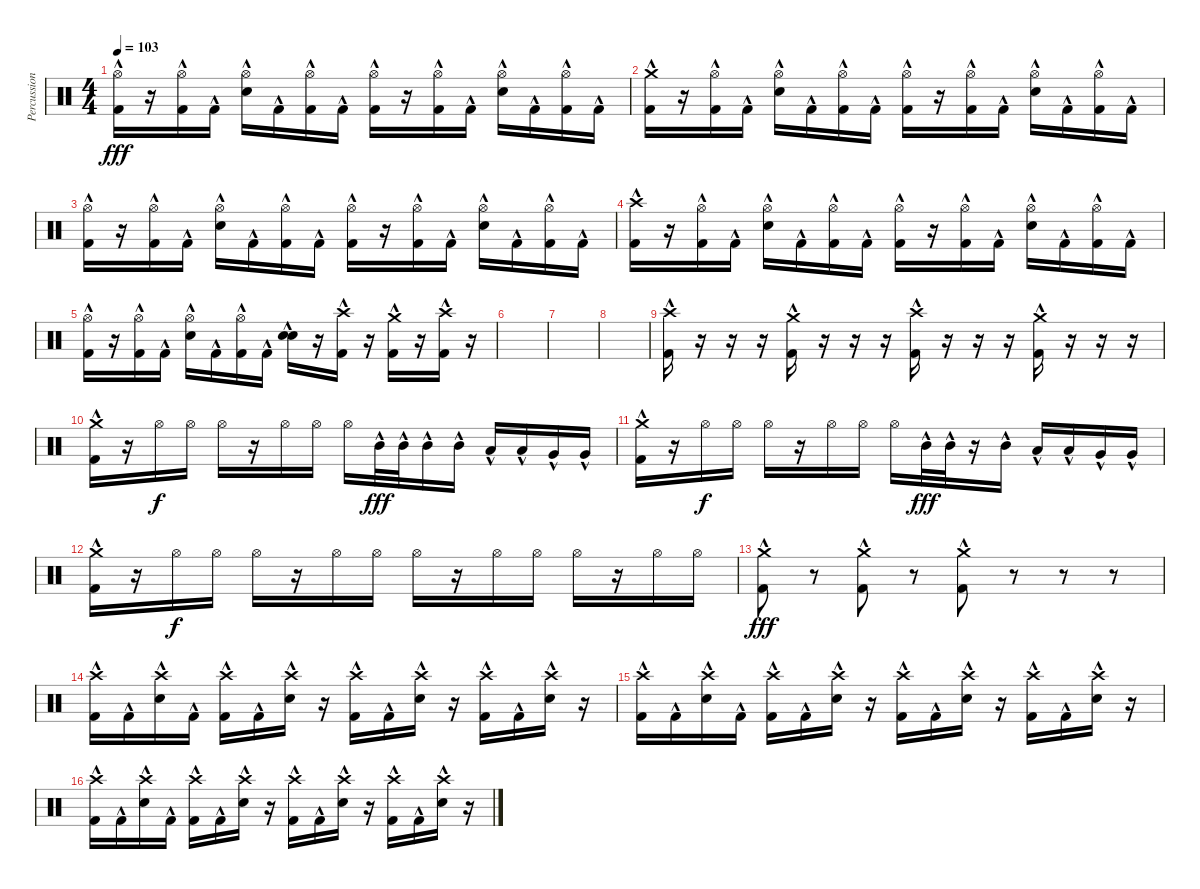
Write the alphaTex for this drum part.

\track ("Percussion" "Percussion") {instrument percussion}
\staff {score}
\articulation defaults
\ts (4 4)
\tempo 103
\clef neutral
\ks c
("Kick (hit) 2"{hac} "Hi-Hat (open)").16{dy fff} r.16 ("Kick (hit) 2"{hac} "Hi-Hat (open)").16 "Kick (hit) 2"{hac}.16 ("Electric Snare (hit)"{hac} "Hi-Hat (open)").16 "Kick (hit) 2"{hac}.16 ("Kick (hit) 2"{hac} "Hi-Hat (open)").16 "Kick (hit) 2"{hac}.16 ("Kick (hit) 2"{hac} "Hi-Hat (open)").16 r.16 ("Kick (hit) 2"{hac} "Hi-Hat (open)").16 "Kick (hit) 2"{hac}.16 ("Electric Snare (hit)"{hac} "Hi-Hat (open)").16 "Kick (hit) 2"{hac}.16 ("Kick (hit) 2"{hac} "Hi-Hat (open)").16 "Kick (hit) 2"{hac}.16 |
("Kick (hit) 2"{hac} "Crash medium (hit)").16 r.16 ("Kick (hit) 2"{hac} "Hi-Hat (open)").16 "Kick (hit) 2"{hac}.16 ("Electric Snare (hit)"{hac} "Hi-Hat (open)").16 "Kick (hit) 2"{hac}.16 ("Kick (hit) 2"{hac} "Hi-Hat (open)").16 "Kick (hit) 2"{hac}.16 ("Kick (hit) 2"{hac} "Hi-Hat (open)").16 r.16 ("Kick (hit) 2"{hac} "Hi-Hat (open)").16 "Kick (hit) 2"{hac}.16 ("Electric Snare (hit)"{hac} "Hi-Hat (open)").16 "Kick (hit) 2"{hac}.16 ("Kick (hit) 2"{hac} "Hi-Hat (open)").16 "Kick (hit) 2"{hac}.16 |
("Kick (hit) 2"{hac} "Hi-Hat (open)").16 r.16 ("Kick (hit) 2"{hac} "Hi-Hat (open)").16 "Kick (hit) 2"{hac}.16 ("Electric Snare (hit)"{hac} "Hi-Hat (open)").16 "Kick (hit) 2"{hac}.16 ("Kick (hit) 2"{hac} "Hi-Hat (open)").16 "Kick (hit) 2"{hac}.16 ("Kick (hit) 2"{hac} "Hi-Hat (open)").16 r.16 ("Kick (hit) 2"{hac} "Hi-Hat (open)").16 "Kick (hit) 2"{hac}.16 ("Electric Snare (hit)"{hac} "Hi-Hat (open)").16 "Kick (hit) 2"{hac}.16 ("Kick (hit) 2"{hac} "Hi-Hat (open)").16 "Kick (hit) 2"{hac}.16 |
("Kick (hit) 2"{hac} "Crash high (hit)").16 r.16 ("Kick (hit) 2"{hac} "Hi-Hat (open)").16 "Kick (hit) 2"{hac}.16 ("Electric Snare (hit)"{hac} "Hi-Hat (open)").16 "Kick (hit) 2"{hac}.16 ("Kick (hit) 2"{hac} "Hi-Hat (open)").16 "Kick (hit) 2"{hac}.16 ("Kick (hit) 2"{hac} "Hi-Hat (open)").16 r.16 ("Kick (hit) 2"{hac} "Hi-Hat (open)").16 "Kick (hit) 2"{hac}.16 ("Electric Snare (hit)"{hac} "Hi-Hat (open)").16 "Kick (hit) 2"{hac}.16 ("Kick (hit) 2"{hac} "Hi-Hat (open)").16 "Kick (hit) 2"{hac}.16 |
("Kick (hit) 2"{hac} "Hi-Hat (open)").16 r.16 ("Kick (hit) 2"{hac} "Hi-Hat (open)").16 "Kick (hit) 2"{hac}.16 ("Electric Snare (hit)"{hac} "Hi-Hat (open)").16 "Kick (hit) 2"{hac}.16 ("Kick (hit) 2"{hac} "Hi-Hat (open)").16 "Kick (hit) 2"{hac}.16 ("Electric Snare (hit)"{hac} "Electric Snare (hit)"{hac}).16{bd 240} r.16 ("Kick (hit) 2"{hac} "Crash high (hit)").16 r.16 ("Kick (hit) 2"{hac} "Crash medium (hit)").16 r.16 ("Kick (hit) 2"{hac} "Crash high (hit)").16 r.16 |
|
|
|
("Kick (hit) 2"{hac} "Crash high (hit)").16 r.16 r.16 r.16 ("Kick (hit) 2"{hac} "Crash medium (hit)").16 r.16 r.16 r.16 ("Kick (hit) 2"{hac} "Crash high (hit)").16 r.16 r.16 r.16 ("Kick (hit) 2"{hac} "Crash medium (hit)").16 r.16 r.16 r.16 |
("Kick (hit) 2"{hac} "Crash medium (hit)").16 r.16 "Hi-Hat (open)".16{dy f} "Hi-Hat (open)".16 "Hi-Hat (open)".16 r.16 "Hi-Hat (open)".16 "Hi-Hat (open)".16 "Hi-Hat (open)".16 "Mid Tom (hit)"{hac}.32{dy fff} "Mid Tom (hit)"{hac}.32 "Mid Tom (hit)"{hac}.16 "Mid Tom (hit)"{hac}.16 "Low Tom (hit)"{hac}.16 "Low Tom (hit)"{hac}.16 "Very Low Tom (hit)"{hac}.16 "Very Low Tom (hit)"{hac}.16 |
("Kick (hit) 2"{hac} "Crash medium (hit)").16 r.16 "Hi-Hat (open)".16{dy f} "Hi-Hat (open)".16 "Hi-Hat (open)".16 r.16 "Hi-Hat (open)".16 "Hi-Hat (open)".16 "Hi-Hat (open)".16 "Mid Tom (hit)"{hac}.32{dy fff} "Mid Tom (hit)"{hac}.32 r.16 "Mid Tom (hit)"{hac}.16 "Low Tom (hit)"{hac}.16 "Low Tom (hit)"{hac}.16 "Very Low Tom (hit)"{hac}.16 "Very Low Tom (hit)"{hac}.16 |
("Kick (hit) 2"{hac} "Crash medium (hit)").16 r.16 "Hi-Hat (open)".16{dy f} "Hi-Hat (open)".16 "Hi-Hat (open)".16 r.16 "Hi-Hat (open)".16 "Hi-Hat (open)".16 "Hi-Hat (open)".16 r.16 "Hi-Hat (open)".16 "Hi-Hat (open)".16 "Hi-Hat (open)".16 r.16 "Hi-Hat (open)".16 "Hi-Hat (open)".16 |
("Kick (hit) 2"{hac} "Crash medium (hit)"{hac}).8{dy fff} r.8{volume 0} ("Kick (hit) 2"{hac} "Crash medium (hit)"{hac}).8{volume 8} r.8{volume 0} ("Kick (hit) 2"{hac} "Crash medium (hit)"{hac}).8{volume 8} r.8{volume 0} r.8 r.8 |
("Kick (hit) 2"{hac} "Crash high (hit)").16{volume 8} "Kick (hit) 2"{hac}.16 ("Electric Snare (hit)"{hac} "Crash high (hit)").16 "Kick (hit) 2"{hac}.16 ("Kick (hit) 2"{hac} "Crash high (hit)").16 "Kick (hit) 2"{hac}.16 ("Electric Snare (hit)"{hac} "Crash high (hit)").16 r.16 ("Kick (hit) 2"{hac} "Crash high (hit)").16 "Kick (hit) 2"{hac}.16 ("Electric Snare (hit)"{hac} "Crash high (hit)").16 r.16 ("Kick (hit) 2"{hac} "Crash high (hit)").16 "Kick (hit) 2"{hac}.16 ("Electric Snare (hit)"{hac} "Crash high (hit)").16 r.16 |
("Kick (hit) 2"{hac} "Crash high (hit)").16 "Kick (hit) 2"{hac}.16 ("Electric Snare (hit)"{hac} "Crash high (hit)").16 "Kick (hit) 2"{hac}.16 ("Kick (hit) 2"{hac} "Crash high (hit)").16 "Kick (hit) 2"{hac}.16 ("Electric Snare (hit)"{hac} "Crash high (hit)").16 r.16 ("Kick (hit) 2"{hac} "Crash high (hit)").16 "Kick (hit) 2"{hac}.16 ("Electric Snare (hit)"{hac} "Crash high (hit)").16 r.16 ("Kick (hit) 2"{hac} "Crash high (hit)").16 "Kick (hit) 2"{hac}.16 ("Electric Snare (hit)"{hac} "Crash high (hit)").16 r.16 |
("Kick (hit) 2"{hac} "Crash high (hit)").16 "Kick (hit) 2"{hac}.16 ("Electric Snare (hit)"{hac} "Crash high (hit)").16 "Kick (hit) 2"{hac}.16 ("Kick (hit) 2"{hac} "Crash high (hit)").16 "Kick (hit) 2"{hac}.16 ("Electric Snare (hit)"{hac} "Crash high (hit)").16 r.16 ("Kick (hit) 2"{hac} "Crash high (hit)").16 "Kick (hit) 2"{hac}.16 ("Electric Snare (hit)"{hac} "Crash high (hit)").16 r.16 ("Kick (hit) 2"{hac} "Crash high (hit)").16 "Kick (hit) 2"{hac}.16 ("Electric Snare (hit)"{hac} "Crash high (hit)").16 r.16
